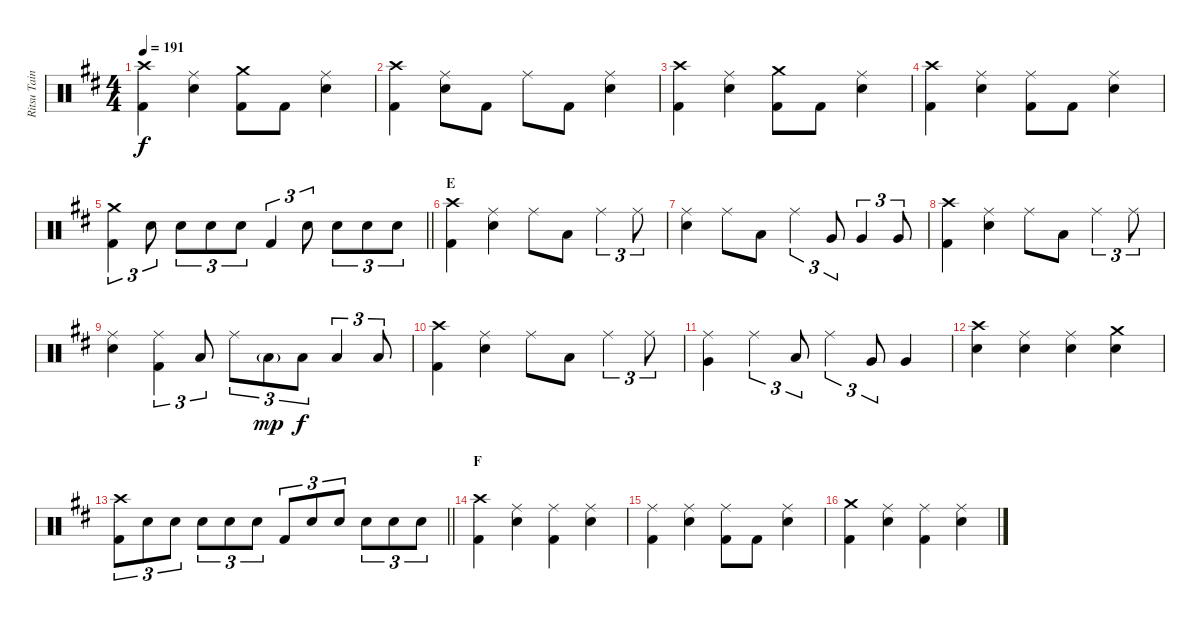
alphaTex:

\track ("Ritsu Tainaka" "Ritsu Tain") {instrument percussion}
\staff {score}
\articulation defaults
\ts (4 4)
\tempo 191
\clef neutral
\ks d
("Crash high (hit)" "Kick (hit) 2").4{dy f} ("Ride (middle)" "Electric Snare (hit)").4 ("Crash medium (hit)" "Kick (hit) 2").8 "Kick (hit) 2".8 ("Ride (middle)" "Electric Snare (hit)").4 |
("Crash high (hit)" "Kick (hit) 2").4 ("Ride (middle)" "Electric Snare (hit)").8 "Kick (hit) 2".8 "Ride (middle)".8 "Kick (hit) 2".8 ("Ride (middle)" "Electric Snare (hit)").4 |
("Crash high (hit)" "Kick (hit) 2").4 ("Ride (middle)" "Electric Snare (hit)").4 ("Crash medium (hit)" "Kick (hit) 2").8 "Kick (hit) 2".8 ("Ride (middle)" "Electric Snare (hit)").4 |
("Crash high (hit)" "Kick (hit) 2").4 ("Ride (middle)" "Electric Snare (hit)").4 ("Ride (middle)" "Kick (hit) 2").8 "Kick (hit) 2".8 ("Ride (middle)" "Electric Snare (hit)").4 |
\barLineRight lightlight
("Crash medium (hit)" "Kick (hit) 2").4{tu (3 2)} "Electric Snare (hit)".8{tu (3 2)} "Electric Snare (hit)".8{tu (3 2)} "Electric Snare (hit)".8{tu (3 2)} "Electric Snare (hit)".8{tu (3 2)} "Kick (hit) 2".4{tu (3 2)} "Electric Snare (hit)".8{tu (3 2)} "Electric Snare (hit)".8{tu (3 2)} "Electric Snare (hit)".8{tu (3 2)} "Electric Snare (hit)".8{tu (3 2)} |
\section ("" "E")
("Crash high (hit)" "Kick (hit) 2").4 ("Ride (middle)" "Electric Snare (hit)").4 "Ride (middle)".8 "Low Tom (hit)".8 "Ride (middle)".4{tu (3 2)} "Ride (middle)".8{tu (3 2)} |
("Ride (middle)" "Electric Snare (hit)").4 "Ride (middle)".8 "Low Tom (hit)".8 "Ride (middle)".4{tu (3 2)} "Very Low Tom (hit)".8{tu (3 2)} "Very Low Tom (hit)".4{tu (3 2)} "Very Low Tom (hit)".8{tu (3 2)} |
("Crash high (hit)" "Kick (hit) 2").4 ("Ride (middle)" "Electric Snare (hit)").4 "Ride (middle)".8 "Low Tom (hit)".8 "Ride (middle)".4{tu (3 2)} "Ride (middle)".8{tu (3 2)} |
("Ride (middle)" "Electric Snare (hit)").4 ("Ride (middle)" "Kick (hit) 2").4{tu (3 2)} "Low Tom (hit)".8{tu (3 2)} "Ride (middle)".8{tu (3 2)} "Low Tom (hit)"{g}.8{tu (3 2) dy mp} "Low Tom (hit)".8{tu (3 2) dy f} "Low Tom (hit)".4{tu (3 2)} "Low Tom (hit)".8{tu (3 2)} |
("Crash high (hit)" "Kick (hit) 2").4 ("Ride (middle)" "Electric Snare (hit)").4 "Ride (middle)".8 "Low Tom (hit)".8 "Ride (middle)".4{tu (3 2)} "Ride (middle)".8{tu (3 2)} |
("Ride (middle)" "Very Low Tom (hit)").4 "Ride (middle)".4{tu (3 2)} "Low Tom (hit)".8{tu (3 2)} "Ride (middle)".4{tu (3 2)} "Very Low Tom (hit)".8{tu (3 2)} "Very Low Tom (hit)".4 |
("Crash high (hit)" "Electric Snare (hit)").4 ("Ride (middle)" "Electric Snare (hit)").4 ("Ride (middle)" "Electric Snare (hit)").4 ("Crash medium (hit)" "Electric Snare (hit)").4 |
\barLineRight lightlight
("Crash high (hit)" "Kick (hit) 2").8{tu (3 2)} "Electric Snare (hit)".8{tu (3 2)} "Electric Snare (hit)".8{tu (3 2)} "Electric Snare (hit)".8{tu (3 2)} "Electric Snare (hit)".8{tu (3 2)} "Electric Snare (hit)".8{tu (3 2)} "Kick (hit) 2".8{tu (3 2)} "Electric Snare (hit)".8{tu (3 2)} "Electric Snare (hit)".8{tu (3 2)} "Electric Snare (hit)".8{tu (3 2)} "Electric Snare (hit)".8{tu (3 2)} "Electric Snare (hit)".8{tu (3 2)} |
\section ("" "F")
("Crash high (hit)" "Kick (hit) 2").4 ("Ride (middle)" "Electric Snare (hit)").4 ("Ride (middle)" "Kick (hit) 2").4 ("Ride (middle)" "Electric Snare (hit)").4 |
("Ride (middle)" "Kick (hit) 2").4 ("Ride (middle)" "Electric Snare (hit)").4 ("Ride (middle)" "Kick (hit) 2").8 "Kick (hit) 2".8 ("Ride (middle)" "Electric Snare (hit)").4 |
("Crash medium (hit)" "Kick (hit) 2").4 ("Ride (middle)" "Electric Snare (hit)").4 ("Ride (middle)" "Kick (hit) 2").4 ("Ride (middle)" "Electric Snare (hit)").4
